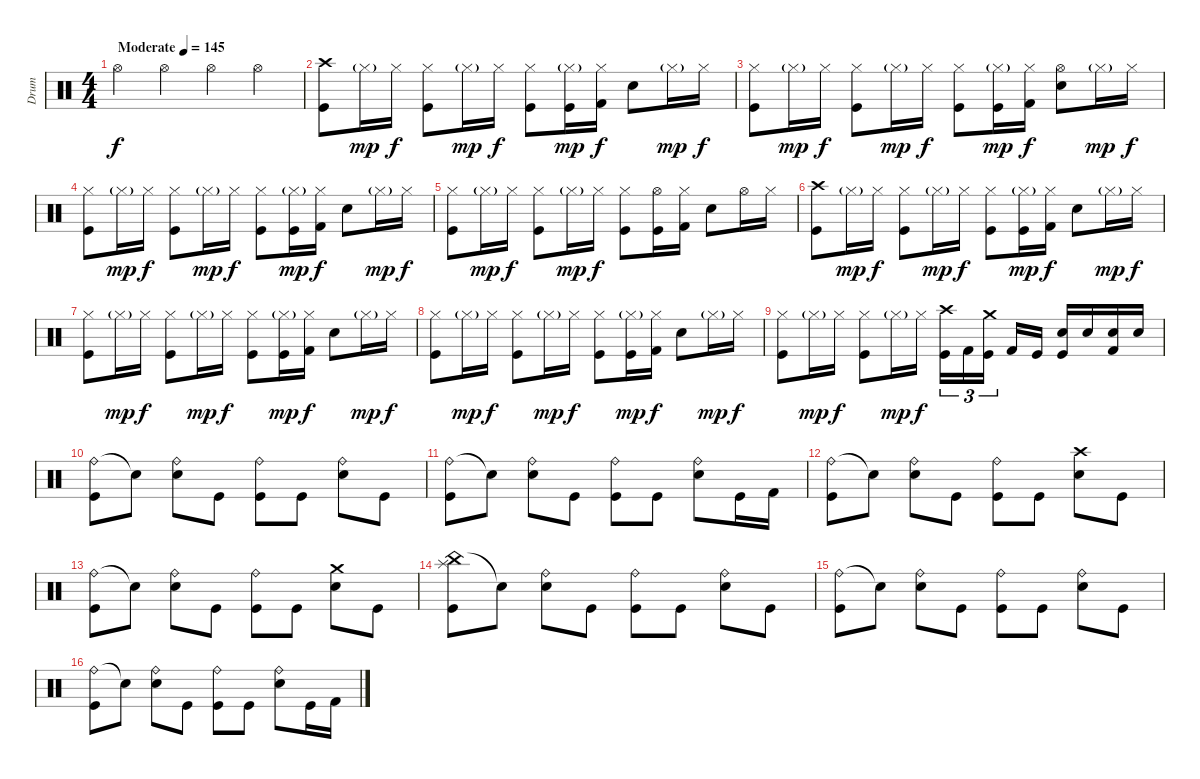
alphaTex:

\track ("Drum" "Drum") {instrument percussion}
\staff {score}
\articulation defaults
\ts (4 4)
\tempo (145 "Moderate")
\clef neutral
\ks c "Hi-Hat (open)".4{dy f} "Hi-Hat (open)".4 "Hi-Hat (open)".4 "Hi-Hat (open)".4
|
("Crash high (hit)" "Kick (hit)").8 "Hi-Hat (closed)"{g}.16{dy mp} "Hi-Hat (closed)".16{dy f} ("Hi-Hat (closed)" "Kick (hit)").8 "Hi-Hat (closed)"{g}.16{dy mp} "Hi-Hat (closed)".16{dy f} ("Hi-Hat (closed)" "Kick (hit)").8 ("Hi-Hat (closed)"{g} "Kick (hit)").16{dy mp} ("Hi-Hat (closed)" "Kick (hit) 2").16{dy f} "Electric Snare (hit)".8 "Hi-Hat (closed)"{g}.16{dy mp} "Hi-Hat (closed)".16{dy f} |
("Hi-Hat (closed)" "Kick (hit)").8 "Hi-Hat (closed)"{g}.16{dy mp} "Hi-Hat (closed)".16{dy f} ("Hi-Hat (closed)" "Kick (hit)").8 "Hi-Hat (closed)"{g}.16{dy mp} "Hi-Hat (closed)".16{dy f} ("Hi-Hat (closed)" "Kick (hit)").8 ("Hi-Hat (closed)"{g} "Kick (hit)").16{dy mp} ("Hi-Hat (closed)" "Kick (hit) 2").16{dy f} ("Hi-Hat (open)" "Electric Snare (hit)").8 "Hi-Hat (closed)"{g}.16{dy mp} "Hi-Hat (closed)".16{dy f} |
("Hi-Hat (closed)" "Kick (hit)").8 "Hi-Hat (closed)"{g}.16{dy mp} "Hi-Hat (closed)".16{dy f} ("Hi-Hat (closed)" "Kick (hit)").8 "Hi-Hat (closed)"{g}.16{dy mp} "Hi-Hat (closed)".16{dy f} ("Hi-Hat (closed)" "Kick (hit)").8 ("Hi-Hat (closed)"{g} "Kick (hit)").16{dy mp} ("Hi-Hat (closed)" "Kick (hit) 2").16{dy f} "Electric Snare (hit)".8 "Hi-Hat (closed)"{g}.16{dy mp} "Hi-Hat (closed)".16{dy f} |
("Hi-Hat (closed)" "Kick (hit)").8 "Hi-Hat (closed)"{g}.16{dy mp} "Hi-Hat (closed)".16{dy f} ("Hi-Hat (closed)" "Kick (hit)").8 "Hi-Hat (closed)"{g}.16{dy mp} "Hi-Hat (closed)".16{dy f} ("Hi-Hat (closed)" "Kick (hit)").8 ("Hi-Hat (open)" "Kick (hit)").16 ("Hi-Hat (closed)" "Kick (hit) 2").16 "Electric Snare (hit)".8 "Hi-Hat (open)".16 "Hi-Hat (closed)".16 |
("Crash high (hit)" "Kick (hit)").8 "Hi-Hat (closed)"{g}.16{dy mp} "Hi-Hat (closed)".16{dy f} ("Hi-Hat (closed)" "Kick (hit)").8 "Hi-Hat (closed)"{g}.16{dy mp} "Hi-Hat (closed)".16{dy f} ("Hi-Hat (closed)" "Kick (hit)").8 ("Hi-Hat (closed)"{g} "Kick (hit)").16{dy mp} ("Hi-Hat (closed)" "Kick (hit) 2").16{dy f} "Electric Snare (hit)".8 "Hi-Hat (closed)"{g}.16{dy mp} "Hi-Hat (closed)".16{dy f} |
("Hi-Hat (closed)" "Kick (hit)").8 "Hi-Hat (closed)"{g}.16{dy mp} "Hi-Hat (closed)".16{dy f} ("Hi-Hat (closed)" "Kick (hit)").8 "Hi-Hat (closed)"{g}.16{dy mp} "Hi-Hat (closed)".16{dy f} ("Hi-Hat (closed)" "Kick (hit)").8 ("Hi-Hat (closed)"{g} "Kick (hit)").16{dy mp} ("Hi-Hat (closed)" "Kick (hit) 2").16{dy f} "Electric Snare (hit)".8 "Hi-Hat (closed)"{g}.16{dy mp} "Hi-Hat (closed)".16{dy f} |
("Hi-Hat (closed)" "Kick (hit)").8 "Hi-Hat (closed)"{g}.16{dy mp} "Hi-Hat (closed)".16{dy f} ("Hi-Hat (closed)" "Kick (hit)").8 "Hi-Hat (closed)"{g}.16{dy mp} "Hi-Hat (closed)".16{dy f} ("Hi-Hat (closed)" "Kick (hit)").8 ("Hi-Hat (closed)"{g} "Kick (hit)").16{dy mp} ("Hi-Hat (closed)" "Kick (hit) 2").16{dy f} "Electric Snare (hit)".8 "Hi-Hat (closed)"{g}.16{dy mp} "Hi-Hat (closed)".16{dy f} |
("Hi-Hat (closed)" "Kick (hit)").8 "Hi-Hat (closed)"{g}.16{dy mp} "Hi-Hat (closed)".16{dy f} ("Hi-Hat (closed)" "Kick (hit)").8 "Hi-Hat (closed)"{g}.16{dy mp} "Hi-Hat (closed)".16{dy f} ("Crash high (hit)" "Kick (hit)").16{tu (3 2)} "Kick (hit) 2".16{tu (3 2)} ("Crash medium (hit)" "Kick (hit)").16{tu (3 2) beam splitsecondary} "Kick (hit) 2".16 "Kick (hit)".16 ("Electric Snare (hit)" "Kick (hit)").16 "Electric Snare (hit)".16 ("Electric Snare (hit)" "Kick (hit) 2").16 "Electric Snare (hit)".16 |
("Ride (bell)" "Kick (hit)").8 "Snare (hit)"{t}.8 ("Ride (bell)" "Electric Snare (hit)").8 "Kick (hit)".8 ("Ride (bell)" "Kick (hit)").8 "Kick (hit)".8 ("Ride (bell)" "Electric Snare (hit)").8 "Kick (hit)".8 |
("Ride (bell)" "Kick (hit)").8 "Snare (hit)"{t}.8 ("Ride (bell)" "Electric Snare (hit)").8 "Kick (hit)".8 ("Ride (bell)" "Kick (hit)").8 "Kick (hit)".8 ("Ride (bell)" "Electric Snare (hit)").8 "Kick (hit)".16 "Kick (hit) 2".16 |
("Ride (bell)" "Kick (hit)").8 "Snare (hit)"{t}.8 ("Ride (bell)" "Electric Snare (hit)").8 "Kick (hit)".8 ("Ride (bell)" "Kick (hit)").8 "Kick (hit)".8 ("Crash high (hit)" "Electric Snare (hit)").8 "Kick (hit)".8 |
("Ride (bell)" "Kick (hit)").8 "Snare (hit)"{t}.8 ("Ride (bell)" "Electric Snare (hit)").8 "Kick (hit)".8 ("Ride (bell)" "Kick (hit)").8 "Kick (hit)".8 ("Crash medium (hit)" "Electric Snare (hit)").8 "Kick (hit)".8 |
("China (hit)" "Splash (hit)" "Kick (hit)").8 "Snare (hit)"{t}.8 ("Ride (bell)" "Electric Snare (hit)").8 "Kick (hit)".8 ("Ride (bell)" "Kick (hit)").8 "Kick (hit)".8 ("Ride (bell)" "Electric Snare (hit)").8 "Kick (hit)".8 |
("Ride (bell)" "Kick (hit)").8 "Snare (hit)"{t}.8 ("Ride (bell)" "Electric Snare (hit)").8 "Kick (hit)".8 ("Ride (bell)" "Kick (hit)").8 "Kick (hit)".8 ("Ride (bell)" "Electric Snare (hit)").8 "Kick (hit)".8 |
("Ride (bell)" "Kick (hit)").8 "Snare (hit)"{t}.8 ("Ride (bell)" "Electric Snare (hit)").8 "Kick (hit)".8 ("Ride (bell)" "Kick (hit)").8 "Kick (hit)".8 ("Ride (bell)" "Electric Snare (hit)").8 "Kick (hit)".16 "Kick (hit) 2".16
